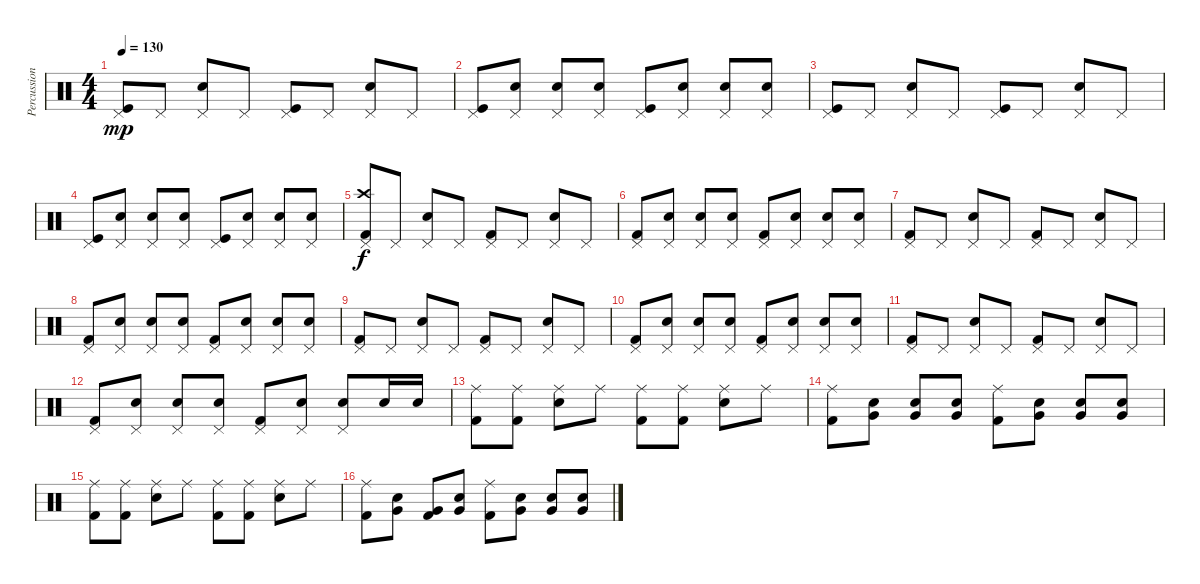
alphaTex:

\track ("Percussion" "Percussion") {instrument percussion}
\staff {score}
\articulation defaults
\ts (4 4)
\tempo 130
\clef neutral
\ks c
("Pedal Hi-Hat (hit)" "Kick (hit)").8{dy mp} "Pedal Hi-Hat (hit)".8 ("Pedal Hi-Hat (hit)" "Electric Snare (hit)").8 "Pedal Hi-Hat (hit)".8 ("Pedal Hi-Hat (hit)" "Kick (hit)").8 "Pedal Hi-Hat (hit)".8 ("Pedal Hi-Hat (hit)" "Electric Snare (hit)").8 "Pedal Hi-Hat (hit)".8 |
("Pedal Hi-Hat (hit)" "Kick (hit)").8 ("Pedal Hi-Hat (hit)" "Electric Snare (hit)").8 ("Pedal Hi-Hat (hit)" "Electric Snare (hit)").8 ("Pedal Hi-Hat (hit)" "Electric Snare (hit)").8 ("Pedal Hi-Hat (hit)" "Kick (hit)").8 ("Pedal Hi-Hat (hit)" "Electric Snare (hit)").8 ("Pedal Hi-Hat (hit)" "Electric Snare (hit)").8 ("Pedal Hi-Hat (hit)" "Electric Snare (hit)").8 |
("Pedal Hi-Hat (hit)" "Kick (hit)").8 "Pedal Hi-Hat (hit)".8 ("Pedal Hi-Hat (hit)" "Electric Snare (hit)").8 "Pedal Hi-Hat (hit)".8 ("Pedal Hi-Hat (hit)" "Kick (hit)").8 "Pedal Hi-Hat (hit)".8 ("Pedal Hi-Hat (hit)" "Electric Snare (hit)").8 "Pedal Hi-Hat (hit)".8 |
("Pedal Hi-Hat (hit)" "Kick (hit)").8 ("Pedal Hi-Hat (hit)" "Electric Snare (hit)").8 ("Pedal Hi-Hat (hit)" "Electric Snare (hit)").8 ("Pedal Hi-Hat (hit)" "Electric Snare (hit)").8 ("Pedal Hi-Hat (hit)" "Kick (hit)").8 ("Pedal Hi-Hat (hit)" "Electric Snare (hit)").8 ("Pedal Hi-Hat (hit)" "Electric Snare (hit)").8 ("Pedal Hi-Hat (hit)" "Electric Snare (hit)").8 |
("Crash high (hit)" "Pedal Hi-Hat (hit)" "Kick (hit) 2").8{dy f} "Pedal Hi-Hat (hit)".8 ("Pedal Hi-Hat (hit)" "Snare (hit) 2").8 "Pedal Hi-Hat (hit)".8 ("Pedal Hi-Hat (hit)" "Kick (hit) 2").8 "Pedal Hi-Hat (hit)".8 ("Pedal Hi-Hat (hit)" "Snare (hit) 2").8 "Pedal Hi-Hat (hit)".8 |
("Pedal Hi-Hat (hit)" "Kick (hit) 2").8 ("Pedal Hi-Hat (hit)" "Snare (hit) 2").8 ("Pedal Hi-Hat (hit)" "Snare (hit) 2").8 ("Pedal Hi-Hat (hit)" "Snare (hit) 2").8 ("Pedal Hi-Hat (hit)" "Kick (hit) 2").8 ("Pedal Hi-Hat (hit)" "Snare (hit) 2").8 ("Pedal Hi-Hat (hit)" "Snare (hit) 2").8 ("Pedal Hi-Hat (hit)" "Snare (hit) 2").8 |
("Pedal Hi-Hat (hit)" "Kick (hit) 2").8 "Pedal Hi-Hat (hit)".8 ("Pedal Hi-Hat (hit)" "Snare (hit) 2").8 "Pedal Hi-Hat (hit)".8 ("Pedal Hi-Hat (hit)" "Kick (hit) 2").8 "Pedal Hi-Hat (hit)".8 ("Pedal Hi-Hat (hit)" "Snare (hit) 2").8 "Pedal Hi-Hat (hit)".8 |
("Pedal Hi-Hat (hit)" "Kick (hit) 2").8 ("Pedal Hi-Hat (hit)" "Snare (hit) 2").8 ("Pedal Hi-Hat (hit)" "Snare (hit) 2").8 ("Pedal Hi-Hat (hit)" "Snare (hit) 2").8 ("Pedal Hi-Hat (hit)" "Kick (hit) 2").8 ("Pedal Hi-Hat (hit)" "Snare (hit) 2").8 ("Pedal Hi-Hat (hit)" "Snare (hit) 2").8 ("Pedal Hi-Hat (hit)" "Snare (hit) 2").8 |
("Pedal Hi-Hat (hit)" "Kick (hit) 2").8 "Pedal Hi-Hat (hit)".8 ("Pedal Hi-Hat (hit)" "Snare (hit) 2").8 "Pedal Hi-Hat (hit)".8 ("Pedal Hi-Hat (hit)" "Kick (hit) 2").8 "Pedal Hi-Hat (hit)".8 ("Pedal Hi-Hat (hit)" "Snare (hit) 2").8 "Pedal Hi-Hat (hit)".8 |
("Pedal Hi-Hat (hit)" "Kick (hit) 2").8 ("Pedal Hi-Hat (hit)" "Snare (hit) 2").8 ("Pedal Hi-Hat (hit)" "Snare (hit) 2").8 ("Pedal Hi-Hat (hit)" "Snare (hit) 2").8 ("Pedal Hi-Hat (hit)" "Kick (hit) 2").8 ("Pedal Hi-Hat (hit)" "Snare (hit) 2").8 ("Pedal Hi-Hat (hit)" "Snare (hit) 2").8 ("Pedal Hi-Hat (hit)" "Snare (hit) 2").8 |
("Pedal Hi-Hat (hit)" "Kick (hit) 2").8 "Pedal Hi-Hat (hit)".8 ("Pedal Hi-Hat (hit)" "Snare (hit) 2").8 "Pedal Hi-Hat (hit)".8 ("Pedal Hi-Hat (hit)" "Kick (hit) 2").8 "Pedal Hi-Hat (hit)".8 ("Pedal Hi-Hat (hit)" "Snare (hit) 2").8 "Pedal Hi-Hat (hit)".8 |
("Pedal Hi-Hat (hit)" "Kick (hit) 2").8 ("Pedal Hi-Hat (hit)" "Snare (hit) 2").8 ("Pedal Hi-Hat (hit)" "Snare (hit) 2").8 ("Pedal Hi-Hat (hit)" "Snare (hit) 2").8 ("Pedal Hi-Hat (hit)" "Kick (hit) 2").8 ("Pedal Hi-Hat (hit)" "Snare (hit) 2").8 ("Pedal Hi-Hat (hit)" "Snare (hit) 2").8 "Snare (hit) 2".16 "Snare (hit) 2".16 |
("Ride (middle)" "Kick (hit) 2").8 ("Ride (middle)" "Kick (hit) 2").8 ("Ride (middle)" "Snare (hit) 2").8 "Ride (middle)".8 ("Ride (middle)" "Kick (hit) 2").8 ("Ride (middle)" "Kick (hit) 2").8 ("Ride (middle)" "Snare (hit) 2").8 "Ride (middle)".8 |
("Ride (middle)" "Kick (hit) 2").8 ("Very Low Tom (hit)" "Snare (hit) 2").8 ("Very Low Tom (hit)" "Snare (hit) 2").8 ("Very Low Tom (hit)" "Snare (hit) 2").8 ("Ride (middle)" "Kick (hit) 2").8 ("Very Low Tom (hit)" "Snare (hit) 2").8 ("Very Low Tom (hit)" "Snare (hit) 2").8 ("Very Low Tom (hit)" "Snare (hit) 2").8 |
("Ride (middle)" "Kick (hit) 2").8 ("Ride (middle)" "Kick (hit) 2").8 ("Ride (middle)" "Snare (hit) 2").8 "Ride (middle)".8 ("Ride (middle)" "Kick (hit) 2").8 ("Ride (middle)" "Kick (hit) 2").8 ("Ride (middle)" "Snare (hit) 2").8 "Ride (middle)".8 |
("Ride (middle)" "Kick (hit) 2").8 ("Very Low Tom (hit)" "Snare (hit) 2").8 ("Very Low Tom (hit)" "Kick (hit) 2").8 ("Very Low Tom (hit)" "Snare (hit) 2").8 ("Ride (middle)" "Kick (hit) 2").8 ("Very Low Tom (hit)" "Snare (hit) 2").8 ("Very Low Tom (hit)" "Snare (hit) 2").8 ("Very Low Tom (hit)" "Snare (hit) 2").8
